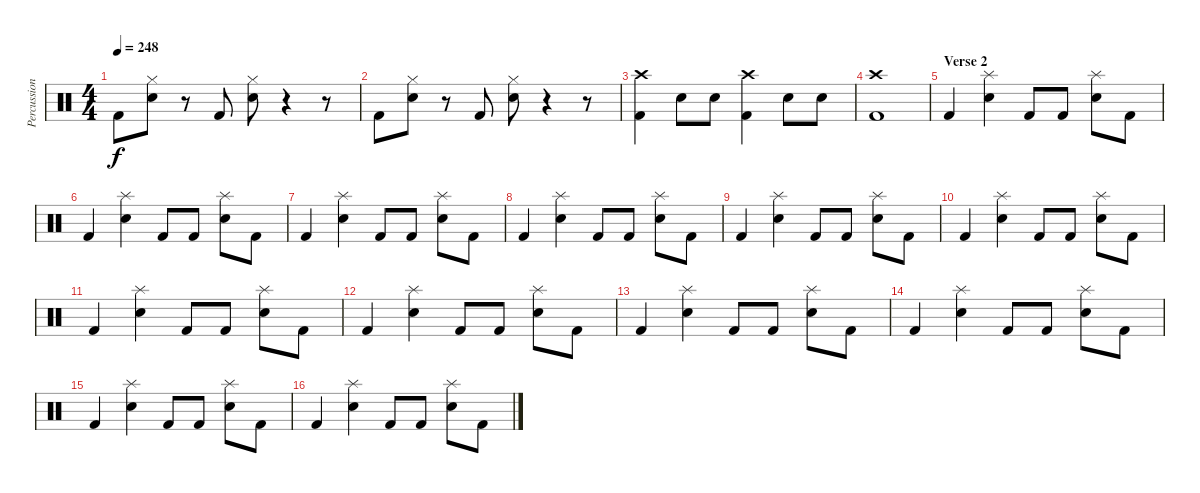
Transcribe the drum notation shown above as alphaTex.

\track ("Percussion" "Percussion") {instrument percussion}
\staff {score}
\articulation defaults
\ts (4 4)
\tempo 248
\clef neutral
\ks c "Kick (hit) 2".8{dy f}
("Hi-Hat (closed)" "Snare (hit) 2").8 r.8 "Kick (hit) 2".8 ("Hi-Hat (closed)" "Snare (hit) 2").8 r.4 r.8 |
"Kick (hit) 2".8 ("Hi-Hat (closed)" "Snare (hit) 2").8 r.8 "Kick (hit) 2".8 ("Hi-Hat (closed)" "Snare (hit) 2").8 r.4 r.8 |
("Crash high (hit)" "Kick (hit) 2").4 "Snare (hit) 2".8 "Snare (hit) 2".8 ("Crash high (hit)" "Kick (hit) 2").4 "Snare (hit) 2".8 "Snare (hit) 2".8 |
("Crash high (hit)" "Kick (hit) 2").1 |
\section ("" "Verse 2")
"Kick (hit) 2".4 ("Splash (hit)" "Snare (hit) 2").4 "Kick (hit) 2".8 "Kick (hit) 2".8 ("Splash (hit)" "Snare (hit) 2").8 "Kick (hit) 2".8 |
"Kick (hit) 2".4 ("Splash (hit)" "Snare (hit) 2").4 "Kick (hit) 2".8 "Kick (hit) 2".8 ("Splash (hit)" "Snare (hit) 2").8 "Kick (hit) 2".8 |
"Kick (hit) 2".4 ("Splash (hit)" "Snare (hit) 2").4 "Kick (hit) 2".8 "Kick (hit) 2".8 ("Splash (hit)" "Snare (hit) 2").8 "Kick (hit) 2".8 |
"Kick (hit) 2".4 ("Splash (hit)" "Snare (hit) 2").4 "Kick (hit) 2".8 "Kick (hit) 2".8 ("Splash (hit)" "Snare (hit) 2").8 "Kick (hit) 2".8 |
"Kick (hit) 2".4 ("Splash (hit)" "Snare (hit) 2").4 "Kick (hit) 2".8 "Kick (hit) 2".8 ("Splash (hit)" "Snare (hit) 2").8 "Kick (hit) 2".8 |
"Kick (hit) 2".4 ("Splash (hit)" "Snare (hit) 2").4 "Kick (hit) 2".8 "Kick (hit) 2".8 ("Splash (hit)" "Snare (hit) 2").8 "Kick (hit) 2".8 |
"Kick (hit) 2".4 ("Splash (hit)" "Snare (hit) 2").4 "Kick (hit) 2".8 "Kick (hit) 2".8 ("Splash (hit)" "Snare (hit) 2").8 "Kick (hit) 2".8 |
"Kick (hit) 2".4 ("Splash (hit)" "Snare (hit) 2").4 "Kick (hit) 2".8 "Kick (hit) 2".8 ("Splash (hit)" "Snare (hit) 2").8 "Kick (hit) 2".8 |
"Kick (hit) 2".4 ("Splash (hit)" "Snare (hit) 2").4 "Kick (hit) 2".8 "Kick (hit) 2".8 ("Splash (hit)" "Snare (hit) 2").8 "Kick (hit) 2".8 |
"Kick (hit) 2".4 ("Splash (hit)" "Snare (hit) 2").4 "Kick (hit) 2".8 "Kick (hit) 2".8 ("Splash (hit)" "Snare (hit) 2").8 "Kick (hit) 2".8 |
"Kick (hit) 2".4 ("Splash (hit)" "Snare (hit) 2").4 "Kick (hit) 2".8 "Kick (hit) 2".8 ("Splash (hit)" "Snare (hit) 2").8 "Kick (hit) 2".8 |
"Kick (hit) 2".4 ("Splash (hit)" "Snare (hit) 2").4 "Kick (hit) 2".8 "Kick (hit) 2".8 ("Splash (hit)" "Snare (hit) 2").8 "Kick (hit) 2".8
